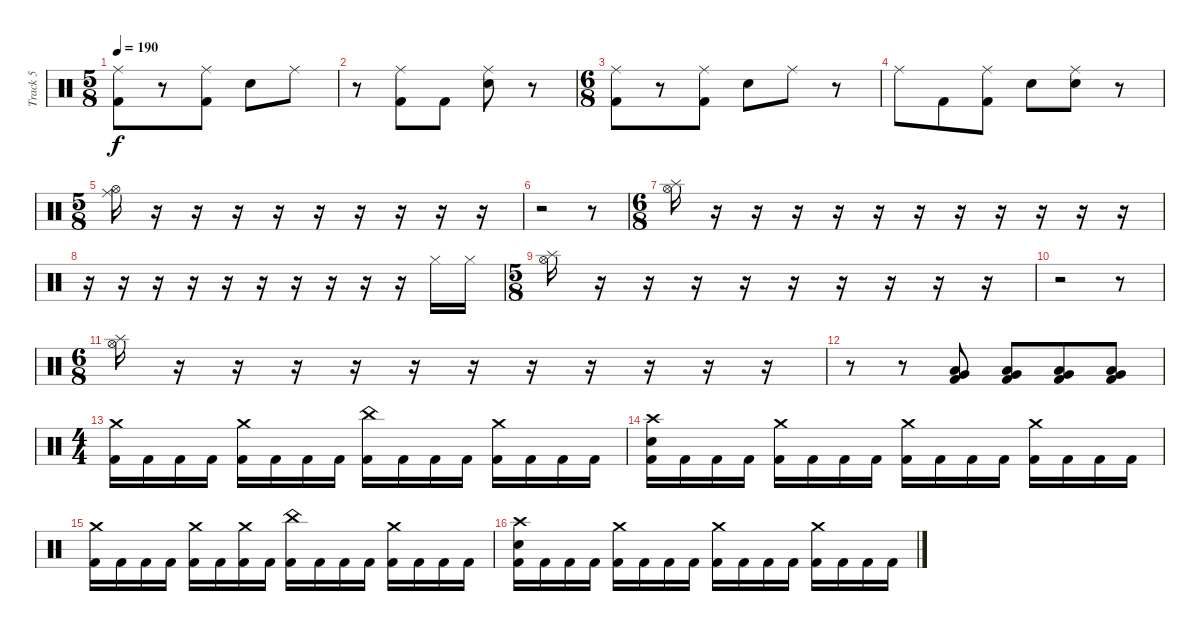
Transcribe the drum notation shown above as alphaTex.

\track ("Track 5" "Track 5") {instrument percussion}
\staff {score}
\articulation defaults
\ts (5 8)
\tempo 190
\clef neutral
\ks c
("Ride (middle)" "Kick (hit) 2").8{dy f} r.8 ("Ride (middle)" "Kick (hit) 2").8 "Electric Snare (hit)".8 "Ride (middle)".8 |
r.8 ("Ride (middle)" "Kick (hit) 2").8 "Kick (hit) 2".8 ("Ride (middle)" "Electric Snare (hit)").8 r.8 |
\ts (6 8)
("Ride (middle)" "Kick (hit) 2").8 r.8 ("Ride (middle)" "Kick (hit) 2").8 "Electric Snare (hit)".8 "Ride (middle)".8 r.8 |
"Ride (middle)".8 "Kick (hit) 2".8 ("Ride (middle)" "Kick (hit) 2").8 "Electric Snare (hit)".8 ("Ride (middle)" "Electric Snare (hit)").8 r.8 |
\ts (5 8)
("Ride (middle)" "Hi-Hat (open)").16 r.16 r.16 r.16 r.16 r.16 r.16 r.16 r.16 r.16 |
r.2 r.8 |
\ts (6 8)
("Splash (hit)" "Hi-Hat (open)").16 r.16 r.16 r.16 r.16 r.16 r.16 r.16 r.16 r.16 r.16 r.16 |
r.16 r.16 r.16 r.16 r.16 r.16 r.16 r.16 r.16 r.16 "Hi-Hat (closed)".16 "Hi-Hat (closed)".16 |
\ts (5 8)
("Hi-Hat (open)" "Splash (hit)").16 r.16 r.16 r.16 r.16 r.16 r.16 r.16 r.16 r.16 |
r.2 r.8 |
\ts (6 8)
("Splash (hit)" "Hi-Hat (open)").16 r.16 r.16 r.16 r.16 r.16 r.16 r.16 r.16 r.16 r.16 r.16 |
r.8 r.8 ("Very Low Tom (hit)" "Low Floor Tom (hit)" "Kick (hit) 2").8 ("Very Low Tom (hit)" "Low Floor Tom (hit)" "Kick (hit) 2").8 ("Very Low Tom (hit)" "Low Floor Tom (hit)" "Kick (hit) 2").8 ("Very Low Tom (hit)" "Low Floor Tom (hit)" "Kick (hit) 2").8 |
\ts (4 4)
("Crash medium (hit)" "Kick (hit) 2").16 "Kick (hit) 2".16 "Kick (hit) 2".16 "Kick (hit) 2".16 ("Crash medium (hit)" "Kick (hit) 2").16 "Kick (hit) 2".16 "Kick (hit) 2".16 "Kick (hit) 2".16 ("China (hit)" "Kick (hit) 2").16 "Kick (hit) 2".16 "Kick (hit) 2".16 "Kick (hit) 2".16 ("Crash medium (hit)" "Kick (hit) 2").16 "Kick (hit) 2".16 "Kick (hit) 2".16 "Kick (hit) 2".16 |
("Crash high (hit)" "Electric Snare (hit)" "Kick (hit) 2").16 "Kick (hit) 2".16 "Kick (hit) 2".16 "Kick (hit) 2".16 ("Crash medium (hit)" "Kick (hit) 2").16 "Kick (hit) 2".16 "Kick (hit) 2".16 "Kick (hit) 2".16 ("Crash medium (hit)" "Kick (hit) 2").16 "Kick (hit) 2".16 "Kick (hit) 2".16 "Kick (hit) 2".16 ("Crash medium (hit)" "Kick (hit) 2").16 "Kick (hit) 2".16 "Kick (hit) 2".16 "Kick (hit) 2".16 |
("Crash medium (hit)" "Kick (hit) 2").16 "Kick (hit) 2".16 "Kick (hit) 2".16 "Kick (hit) 2".16 ("Crash medium (hit)" "Kick (hit) 2").16 "Kick (hit) 2".16 ("Crash medium (hit)" "Kick (hit) 2").16 "Kick (hit) 2".16 ("China (hit)" "Kick (hit) 2").16 "Kick (hit) 2".16 "Kick (hit) 2".16 "Kick (hit) 2".16 ("Crash medium (hit)" "Kick (hit) 2").16 "Kick (hit) 2".16 "Kick (hit) 2".16 "Kick (hit) 2".16 |
("Crash high (hit)" "Electric Snare (hit)" "Kick (hit) 2").16 "Kick (hit) 2".16 "Kick (hit) 2".16 "Kick (hit) 2".16 ("Crash medium (hit)" "Kick (hit) 2").16 "Kick (hit) 2".16 "Kick (hit) 2".16 "Kick (hit) 2".16 ("Crash medium (hit)" "Kick (hit) 2").16 "Kick (hit) 2".16 "Kick (hit) 2".16 "Kick (hit) 2".16 ("Crash medium (hit)" "Kick (hit) 2").16 "Kick (hit) 2".16 "Kick (hit) 2".16 "Kick (hit) 2".16
